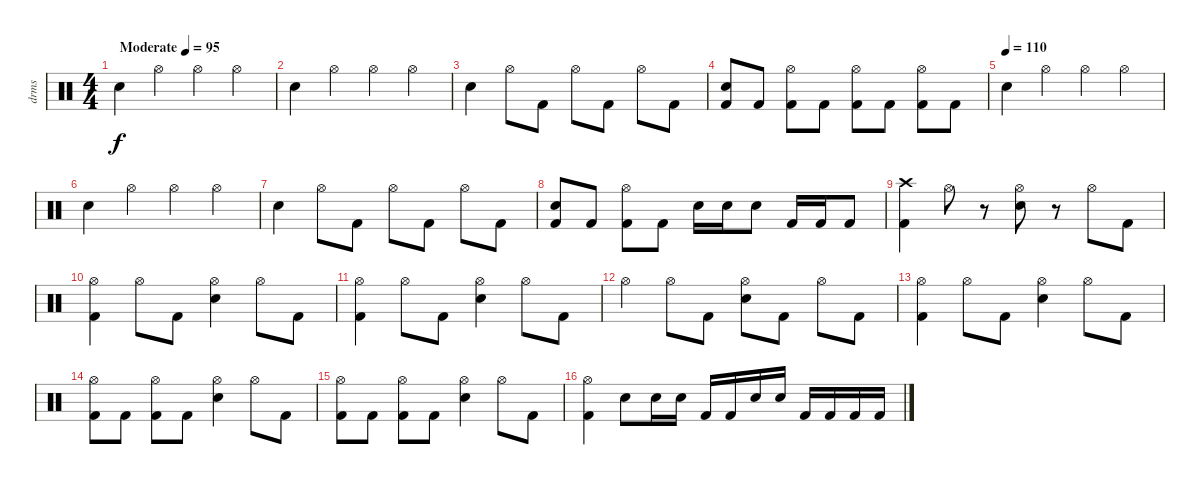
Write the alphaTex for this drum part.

\track ("drms" "drms") {instrument percussion}
\staff {score}
\articulation defaults
\ts (4 4)
\tempo (95 "Moderate")
\clef neutral
\ks c "Snare (hit) 2".4{dy f} "Hi-Hat (open)".4 "Hi-Hat (open)".4 "Hi-Hat (open)".4
|
"Snare (hit) 2".4 "Hi-Hat (open)".4 "Hi-Hat (open)".4 "Hi-Hat (open)".4 |
"Snare (hit) 2".4 "Hi-Hat (open)".8 "Kick (hit) 2".8 "Hi-Hat (open)".8 "Kick (hit) 2".8 "Hi-Hat (open)".8 "Kick (hit) 2".8 |
("Snare (hit) 2" "Kick (hit) 2").8 "Kick (hit) 2".8 ("Hi-Hat (open)" "Kick (hit) 2").8 "Kick (hit) 2".8 ("Hi-Hat (open)" "Kick (hit) 2").8 "Kick (hit) 2".8 ("Hi-Hat (open)" "Kick (hit) 2").8 "Kick (hit) 2".8 |
\tempo (110)
"Snare (hit) 2".4 "Hi-Hat (open)".4 "Hi-Hat (open)".4 "Hi-Hat (open)".4 |
"Snare (hit) 2".4 "Hi-Hat (open)".4 "Hi-Hat (open)".4 "Hi-Hat (open)".4 |
"Snare (hit) 2".4 "Hi-Hat (open)".8 "Kick (hit) 2".8 "Hi-Hat (open)".8 "Kick (hit) 2".8 "Hi-Hat (open)".8 "Kick (hit) 2".8 |
("Snare (hit) 2" "Kick (hit) 2").8 "Kick (hit) 2".8 ("Hi-Hat (open)" "Kick (hit) 2").8 "Kick (hit) 2".8 "Snare (hit) 2".16 "Snare (hit) 2".16 "Snare (hit) 2".8 "Kick (hit) 2".16 "Kick (hit) 2".16 "Kick (hit) 2".8 |
("Crash high (hit)" "Kick (hit) 2").4 "Hi-Hat (open)".8 r.8 ("Hi-Hat (open)" "Snare (hit) 2").8 r.8 "Hi-Hat (open)".8 "Kick (hit) 2".8 |
("Hi-Hat (open)" "Kick (hit) 2").4 "Hi-Hat (open)".8 "Kick (hit) 2".8 ("Hi-Hat (open)" "Snare (hit) 2").4 "Hi-Hat (open)".8 "Kick (hit) 2".8 |
("Hi-Hat (open)" "Kick (hit) 2").4 "Hi-Hat (open)".8 "Kick (hit) 2".8 ("Hi-Hat (open)" "Snare (hit) 2").4 "Hi-Hat (open)".8 "Kick (hit) 2".8 |
"Hi-Hat (open)".4 "Hi-Hat (open)".8 "Kick (hit) 2".8 ("Hi-Hat (open)" "Snare (hit) 2").8 "Kick (hit) 2".8 "Hi-Hat (open)".8 "Kick (hit) 2".8 |
("Hi-Hat (open)" "Kick (hit) 2").4 "Hi-Hat (open)".8 "Kick (hit) 2".8 ("Hi-Hat (open)" "Snare (hit) 2").4 "Hi-Hat (open)".8 "Kick (hit) 2".8 |
("Hi-Hat (open)" "Kick (hit) 2").8 "Kick (hit) 2".8 ("Hi-Hat (open)" "Kick (hit) 2").8 "Kick (hit) 2".8 ("Hi-Hat (open)" "Snare (hit) 2").4 "Hi-Hat (open)".8 "Kick (hit) 2".8 |
("Hi-Hat (open)" "Kick (hit) 2").8 "Kick (hit) 2".8 ("Hi-Hat (open)" "Kick (hit) 2").8 "Kick (hit) 2".8 ("Hi-Hat (open)" "Snare (hit) 2").4 "Hi-Hat (open)".8 "Kick (hit) 2".8 |
("Hi-Hat (open)" "Kick (hit) 2").4 "Snare (hit) 2".8 "Snare (hit) 2".16 "Snare (hit) 2".16 "Kick (hit) 2".16 "Kick (hit) 2".16 "Snare (hit) 2".16 "Snare (hit) 2".16 "Kick (hit) 2".16 "Kick (hit) 2".16 "Kick (hit) 2".16 "Kick (hit) 2".16
